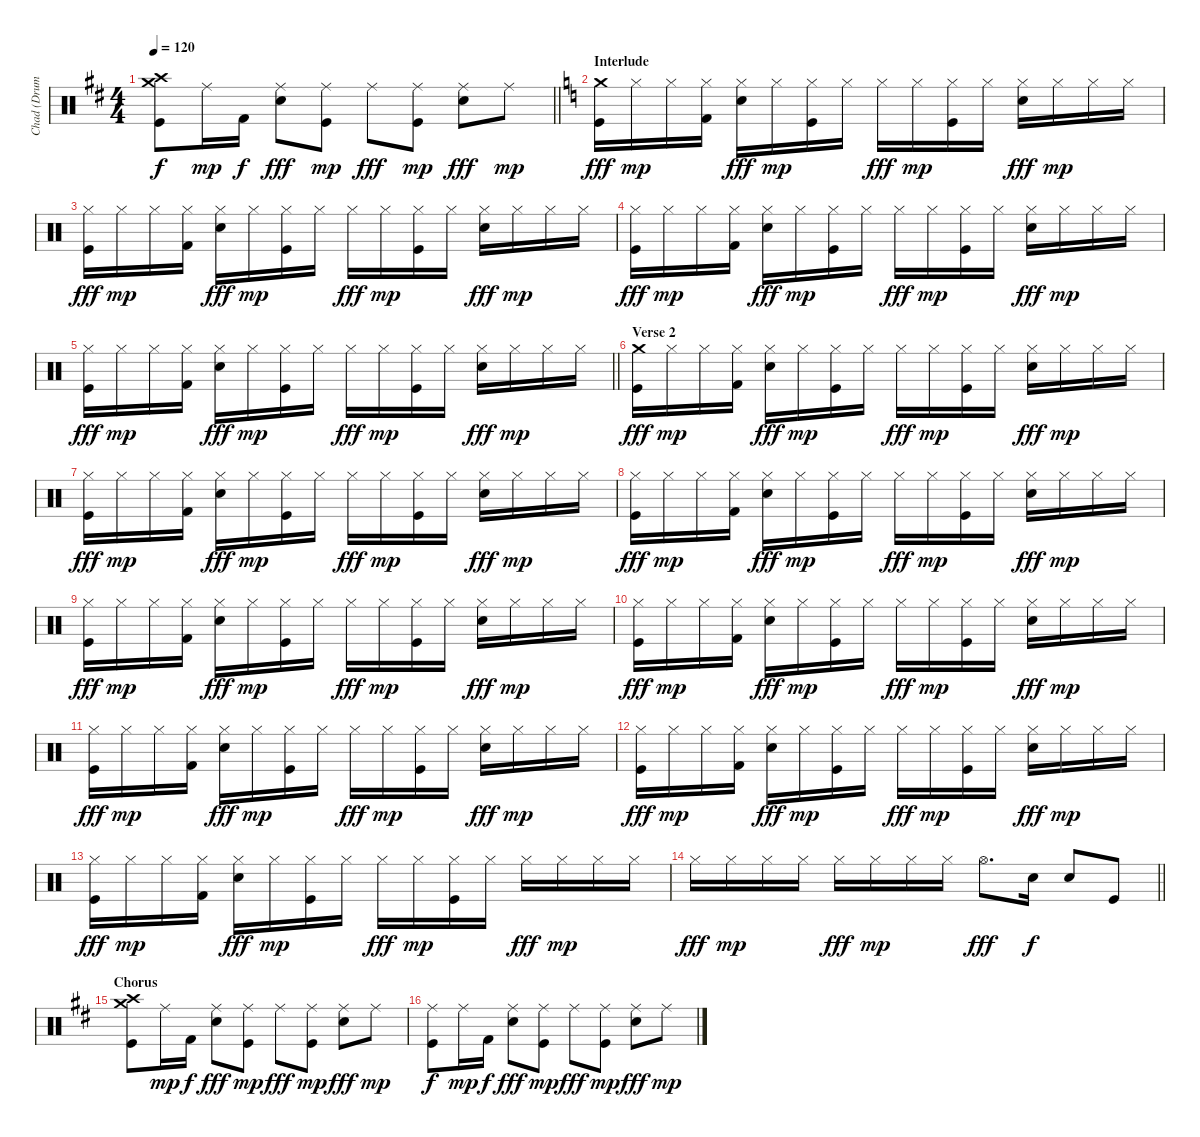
\track ("Chad (Drums)" "Chad (Drum") {instrument percussion}
\staff {score}
\articulation defaults
\ts (4 4)
\tempo 120
\clef neutral
\barLineRight lightlight
\ks d
("Crash high (hit)" "Crash medium (hit)" "Kick (hit)").8{dy f} "Ride (middle)".16{dy mp} "Kick (hit) 2".16{dy f} ("Ride (middle)" "Snare (hit) 2").8{dy fff} ("Ride (middle)" "Kick (hit)").8{dy mp} "Ride (middle)".8{dy fff} ("Ride (middle)" "Kick (hit)").8{dy mp} ("Ride (middle)" "Snare (hit) 2").8{dy fff} "Ride (middle)".8{dy mp} |
\section ("" "Interlude")
\ks c
("Crash medium (hit)" "Kick (hit)").16{dy fff} "Hi-Hat (closed)".16{dy mp} "Hi-Hat (closed)".16 ("Hi-Hat (closed)" "Kick (hit) 2").16 ("Hi-Hat (closed)" "Snare (hit) 2").16{dy fff} "Hi-Hat (closed)".16{dy mp} ("Hi-Hat (closed)" "Kick (hit)").16 "Hi-Hat (closed)".16 "Hi-Hat (closed)".16{dy fff} "Hi-Hat (closed)".16{dy mp} ("Hi-Hat (closed)" "Kick (hit)").16 "Hi-Hat (closed)".16 ("Hi-Hat (closed)" "Snare (hit) 2").16{dy fff} "Hi-Hat (closed)".16{dy mp} "Hi-Hat (closed)".16 "Hi-Hat (closed)".16 |
("Hi-Hat (closed)" "Kick (hit)").16{dy fff} "Hi-Hat (closed)".16{dy mp} "Hi-Hat (closed)".16 ("Hi-Hat (closed)" "Kick (hit) 2").16 ("Hi-Hat (closed)" "Snare (hit) 2").16{dy fff} "Hi-Hat (closed)".16{dy mp} ("Hi-Hat (closed)" "Kick (hit)").16 "Hi-Hat (closed)".16 "Hi-Hat (closed)".16{dy fff} "Hi-Hat (closed)".16{dy mp} ("Hi-Hat (closed)" "Kick (hit)").16 "Hi-Hat (closed)".16 ("Hi-Hat (closed)" "Snare (hit) 2").16{dy fff} "Hi-Hat (closed)".16{dy mp} "Hi-Hat (closed)".16 "Hi-Hat (closed)".16 |
("Hi-Hat (closed)" "Kick (hit)").16{dy fff} "Hi-Hat (closed)".16{dy mp} "Hi-Hat (closed)".16 ("Hi-Hat (closed)" "Kick (hit) 2").16 ("Hi-Hat (closed)" "Snare (hit) 2").16{dy fff} "Hi-Hat (closed)".16{dy mp} ("Hi-Hat (closed)" "Kick (hit)").16 "Hi-Hat (closed)".16 "Hi-Hat (closed)".16{dy fff} "Hi-Hat (closed)".16{dy mp} ("Hi-Hat (closed)" "Kick (hit)").16 "Hi-Hat (closed)".16 ("Hi-Hat (closed)" "Snare (hit) 2").16{dy fff} "Hi-Hat (closed)".16{dy mp} "Hi-Hat (closed)".16 "Hi-Hat (closed)".16 |
\barLineRight lightlight
("Hi-Hat (closed)" "Kick (hit)").16{dy fff} "Hi-Hat (closed)".16{dy mp} "Hi-Hat (closed)".16 ("Hi-Hat (closed)" "Kick (hit) 2").16 ("Hi-Hat (closed)" "Snare (hit) 2").16{dy fff} "Hi-Hat (closed)".16{dy mp} ("Hi-Hat (closed)" "Kick (hit)").16 "Hi-Hat (closed)".16 "Hi-Hat (closed)".16{dy fff} "Hi-Hat (closed)".16{dy mp} ("Hi-Hat (closed)" "Kick (hit)").16 "Hi-Hat (closed)".16 ("Hi-Hat (closed)" "Snare (hit) 2").16{dy fff} "Hi-Hat (closed)".16{dy mp} "Hi-Hat (closed)".16 "Hi-Hat (closed)".16 |
\section ("" "Verse 2")
("Crash medium (hit)" "Kick (hit)").16{dy fff} "Hi-Hat (closed)".16{dy mp} "Hi-Hat (closed)".16 ("Hi-Hat (closed)" "Kick (hit) 2").16 ("Hi-Hat (closed)" "Snare (hit) 2").16{dy fff} "Hi-Hat (closed)".16{dy mp} ("Hi-Hat (closed)" "Kick (hit)").16 "Hi-Hat (closed)".16 "Hi-Hat (closed)".16{dy fff} "Hi-Hat (closed)".16{dy mp} ("Hi-Hat (closed)" "Kick (hit)").16 "Hi-Hat (closed)".16 ("Hi-Hat (closed)" "Snare (hit) 2").16{dy fff} "Hi-Hat (closed)".16{dy mp} "Hi-Hat (closed)".16 "Hi-Hat (closed)".16 |
("Hi-Hat (closed)" "Kick (hit)").16{dy fff} "Hi-Hat (closed)".16{dy mp} "Hi-Hat (closed)".16 ("Hi-Hat (closed)" "Kick (hit) 2").16 ("Hi-Hat (closed)" "Snare (hit) 2").16{dy fff} "Hi-Hat (closed)".16{dy mp} ("Hi-Hat (closed)" "Kick (hit)").16 "Hi-Hat (closed)".16 "Hi-Hat (closed)".16{dy fff} "Hi-Hat (closed)".16{dy mp} ("Hi-Hat (closed)" "Kick (hit)").16 "Hi-Hat (closed)".16 ("Hi-Hat (closed)" "Snare (hit) 2").16{dy fff} "Hi-Hat (closed)".16{dy mp} "Hi-Hat (closed)".16 "Hi-Hat (closed)".16 |
("Hi-Hat (closed)" "Kick (hit)").16{dy fff} "Hi-Hat (closed)".16{dy mp} "Hi-Hat (closed)".16 ("Hi-Hat (closed)" "Kick (hit) 2").16 ("Hi-Hat (closed)" "Snare (hit) 2").16{dy fff} "Hi-Hat (closed)".16{dy mp} ("Hi-Hat (closed)" "Kick (hit)").16 "Hi-Hat (closed)".16 "Hi-Hat (closed)".16{dy fff} "Hi-Hat (closed)".16{dy mp} ("Hi-Hat (closed)" "Kick (hit)").16 "Hi-Hat (closed)".16 ("Hi-Hat (closed)" "Snare (hit) 2").16{dy fff} "Hi-Hat (closed)".16{dy mp} "Hi-Hat (closed)".16 "Hi-Hat (closed)".16 |
("Hi-Hat (closed)" "Kick (hit)").16{dy fff} "Hi-Hat (closed)".16{dy mp} "Hi-Hat (closed)".16 ("Hi-Hat (closed)" "Kick (hit) 2").16 ("Hi-Hat (closed)" "Snare (hit) 2").16{dy fff} "Hi-Hat (closed)".16{dy mp} ("Hi-Hat (closed)" "Kick (hit)").16 "Hi-Hat (closed)".16 "Hi-Hat (closed)".16{dy fff} "Hi-Hat (closed)".16{dy mp} ("Hi-Hat (closed)" "Kick (hit)").16 "Hi-Hat (closed)".16 ("Hi-Hat (closed)" "Snare (hit) 2").16{dy fff} "Hi-Hat (closed)".16{dy mp} "Hi-Hat (closed)".16 "Hi-Hat (closed)".16 |
("Hi-Hat (closed)" "Kick (hit)").16{dy fff} "Hi-Hat (closed)".16{dy mp} "Hi-Hat (closed)".16 ("Hi-Hat (closed)" "Kick (hit) 2").16 ("Hi-Hat (closed)" "Snare (hit) 2").16{dy fff} "Hi-Hat (closed)".16{dy mp} ("Hi-Hat (closed)" "Kick (hit)").16 "Hi-Hat (closed)".16 "Hi-Hat (closed)".16{dy fff} "Hi-Hat (closed)".16{dy mp} ("Hi-Hat (closed)" "Kick (hit)").16 "Hi-Hat (closed)".16 ("Hi-Hat (closed)" "Snare (hit) 2").16{dy fff} "Hi-Hat (closed)".16{dy mp} "Hi-Hat (closed)".16 "Hi-Hat (closed)".16 |
("Hi-Hat (closed)" "Kick (hit)").16{dy fff} "Hi-Hat (closed)".16{dy mp} "Hi-Hat (closed)".16 ("Hi-Hat (closed)" "Kick (hit) 2").16 ("Hi-Hat (closed)" "Snare (hit) 2").16{dy fff} "Hi-Hat (closed)".16{dy mp} ("Hi-Hat (closed)" "Kick (hit)").16 "Hi-Hat (closed)".16 "Hi-Hat (closed)".16{dy fff} "Hi-Hat (closed)".16{dy mp} ("Hi-Hat (closed)" "Kick (hit)").16 "Hi-Hat (closed)".16 ("Hi-Hat (closed)" "Snare (hit) 2").16{dy fff} "Hi-Hat (closed)".16{dy mp} "Hi-Hat (closed)".16 "Hi-Hat (closed)".16 |
("Hi-Hat (closed)" "Kick (hit)").16{dy fff} "Hi-Hat (closed)".16{dy mp} "Hi-Hat (closed)".16 ("Hi-Hat (closed)" "Kick (hit) 2").16 ("Hi-Hat (closed)" "Snare (hit) 2").16{dy fff} "Hi-Hat (closed)".16{dy mp} ("Hi-Hat (closed)" "Kick (hit)").16 "Hi-Hat (closed)".16 "Hi-Hat (closed)".16{dy fff} "Hi-Hat (closed)".16{dy mp} ("Hi-Hat (closed)" "Kick (hit)").16 "Hi-Hat (closed)".16 ("Hi-Hat (closed)" "Snare (hit) 2").16{dy fff} "Hi-Hat (closed)".16{dy mp} "Hi-Hat (closed)".16 "Hi-Hat (closed)".16 |
("Hi-Hat (closed)" "Kick (hit)").16{dy fff} "Hi-Hat (closed)".16{dy mp} "Hi-Hat (closed)".16 ("Hi-Hat (closed)" "Kick (hit) 2").16 ("Hi-Hat (closed)" "Snare (hit) 2").16{dy fff} "Hi-Hat (closed)".16{dy mp} ("Hi-Hat (closed)" "Kick (hit)").16 "Hi-Hat (closed)".16 "Hi-Hat (closed)".16{dy fff} "Hi-Hat (closed)".16{dy mp} ("Hi-Hat (closed)" "Kick (hit)").16 "Hi-Hat (closed)".16 "Hi-Hat (closed)".16{dy fff} "Hi-Hat (closed)".16{dy mp} "Hi-Hat (closed)".16 "Hi-Hat (closed)".16 |
\barLineRight lightlight "Hi-Hat (closed)".16{dy fff} "Hi-Hat (closed)".16{dy mp} "Hi-Hat (closed)".16 "Hi-Hat (closed)".16 "Hi-Hat (closed)".16{dy fff} "Hi-Hat (closed)".16{dy mp} "Hi-Hat (closed)".16 "Hi-Hat (closed)".16 "Hi-Hat (open)".8{d dy fff} "Snare (hit) 2".16{dy f} "Snare (hit) 2".8 "Kick (hit)".8
|
\section ("" "Chorus")
\ks d
("Crash high (hit)" "Crash medium (hit)" "Kick (hit)").8 "Ride (middle)".16{dy mp} "Kick (hit) 2".16{dy f} ("Ride (middle)" "Snare (hit) 2").8{dy fff} ("Ride (middle)" "Kick (hit)").8{dy mp} "Ride (middle)".8{dy fff} ("Ride (middle)" "Kick (hit)").8{dy mp} ("Ride (middle)" "Snare (hit) 2").8{dy fff} "Ride (middle)".8{dy mp} |
("Ride (middle)" "Kick (hit)").8{dy f} "Ride (middle)".16{dy mp} "Kick (hit) 2".16{dy f} ("Ride (middle)" "Snare (hit) 2").8{dy fff} ("Ride (middle)" "Kick (hit)").8{dy mp} "Ride (middle)".8{dy fff} ("Ride (middle)" "Kick (hit)").8{dy mp} ("Ride (middle)" "Snare (hit) 2").8{dy fff} "Ride (middle)".8{dy mp}
